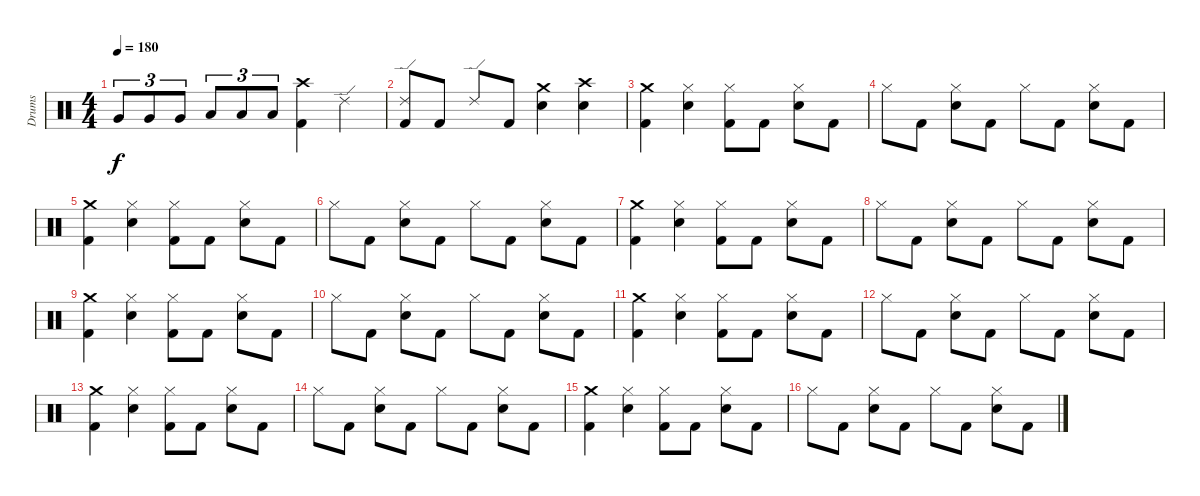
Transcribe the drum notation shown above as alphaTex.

\track ("Drums" "Drums") {instrument percussion}
\staff {score}
\articulation defaults
\ts (4 4)
\tempo 180
\clef neutral
\ks c "Very Low Tom (hit)".8{tu (3 2) dy f} "Very Low Tom (hit)".8{tu (3 2)} "Very Low Tom (hit)".8{tu (3 2)} "Low Floor Tom (hit)".8{tu (3 2)} "Low Floor Tom (hit)".8{tu (3 2)} "Low Floor Tom (hit)".8{tu (3 2)}
("Crash high (hit)" "Kick (hit) 2").4 "Ride (edge) 2".4 |
("Ride (edge) 2" "Kick (hit) 2").8 "Kick (hit) 2".8 "Ride (edge) 2".8 "Kick (hit) 2".8 ("Crash medium (hit)" "Electric Snare (hit)").4 ("Crash high (hit)" "Electric Snare (hit)").4 |
("Crash medium (hit)" "Kick (hit) 2").4 ("Hi-Hat (closed)" "Electric Snare (hit)").4 ("Hi-Hat (closed)" "Kick (hit) 2").8 "Kick (hit) 2".8 ("Hi-Hat (closed)" "Electric Snare (hit)").8 "Kick (hit) 2".8 |
"Hi-Hat (closed)".8 "Kick (hit) 2".8 ("Hi-Hat (closed)" "Electric Snare (hit)").8 "Kick (hit) 2".8 "Hi-Hat (closed)".8 "Kick (hit) 2".8 ("Hi-Hat (closed)" "Electric Snare (hit)").8 "Kick (hit) 2".8 |
("Crash medium (hit)" "Kick (hit) 2").4 ("Hi-Hat (closed)" "Electric Snare (hit)").4 ("Hi-Hat (closed)" "Kick (hit) 2").8 "Kick (hit) 2".8 ("Hi-Hat (closed)" "Electric Snare (hit)").8 "Kick (hit) 2".8 |
"Hi-Hat (closed)".8 "Kick (hit) 2".8 ("Hi-Hat (closed)" "Electric Snare (hit)").8 "Kick (hit) 2".8 "Hi-Hat (closed)".8 "Kick (hit) 2".8 ("Hi-Hat (closed)" "Electric Snare (hit)").8 "Kick (hit) 2".8 |
("Crash medium (hit)" "Kick (hit) 2").4 ("Hi-Hat (closed)" "Electric Snare (hit)").4 ("Hi-Hat (closed)" "Kick (hit) 2").8 "Kick (hit) 2".8 ("Hi-Hat (closed)" "Electric Snare (hit)").8 "Kick (hit) 2".8 |
"Hi-Hat (closed)".8 "Kick (hit) 2".8 ("Hi-Hat (closed)" "Electric Snare (hit)").8 "Kick (hit) 2".8 "Hi-Hat (closed)".8 "Kick (hit) 2".8 ("Hi-Hat (closed)" "Electric Snare (hit)").8 "Kick (hit) 2".8 |
("Crash medium (hit)" "Kick (hit) 2").4 ("Hi-Hat (closed)" "Electric Snare (hit)").4 ("Hi-Hat (closed)" "Kick (hit) 2").8 "Kick (hit) 2".8 ("Hi-Hat (closed)" "Electric Snare (hit)").8 "Kick (hit) 2".8 |
"Hi-Hat (closed)".8 "Kick (hit) 2".8 ("Hi-Hat (closed)" "Electric Snare (hit)").8 "Kick (hit) 2".8 "Hi-Hat (closed)".8 "Kick (hit) 2".8 ("Hi-Hat (closed)" "Electric Snare (hit)").8 "Kick (hit) 2".8 |
("Crash medium (hit)" "Kick (hit) 2").4 ("Hi-Hat (closed)" "Electric Snare (hit)").4 ("Hi-Hat (closed)" "Kick (hit) 2").8 "Kick (hit) 2".8 ("Hi-Hat (closed)" "Electric Snare (hit)").8 "Kick (hit) 2".8 |
"Hi-Hat (closed)".8 "Kick (hit) 2".8 ("Hi-Hat (closed)" "Electric Snare (hit)").8 "Kick (hit) 2".8 "Hi-Hat (closed)".8 "Kick (hit) 2".8 ("Hi-Hat (closed)" "Electric Snare (hit)").8 "Kick (hit) 2".8 |
("Crash medium (hit)" "Kick (hit) 2").4 ("Hi-Hat (closed)" "Electric Snare (hit)").4 ("Hi-Hat (closed)" "Kick (hit) 2").8 "Kick (hit) 2".8 ("Hi-Hat (closed)" "Electric Snare (hit)").8 "Kick (hit) 2".8 |
"Hi-Hat (closed)".8 "Kick (hit) 2".8 ("Hi-Hat (closed)" "Electric Snare (hit)").8 "Kick (hit) 2".8 "Hi-Hat (closed)".8 "Kick (hit) 2".8 ("Hi-Hat (closed)" "Electric Snare (hit)").8 "Kick (hit) 2".8 |
("Crash medium (hit)" "Kick (hit) 2").4 ("Hi-Hat (closed)" "Electric Snare (hit)").4 ("Hi-Hat (closed)" "Kick (hit) 2").8 "Kick (hit) 2".8 ("Hi-Hat (closed)" "Electric Snare (hit)").8 "Kick (hit) 2".8 |
"Hi-Hat (closed)".8 "Kick (hit) 2".8 ("Hi-Hat (closed)" "Electric Snare (hit)").8 "Kick (hit) 2".8 "Hi-Hat (closed)".8 "Kick (hit) 2".8 ("Hi-Hat (closed)" "Electric Snare (hit)").8 "Kick (hit) 2".8
